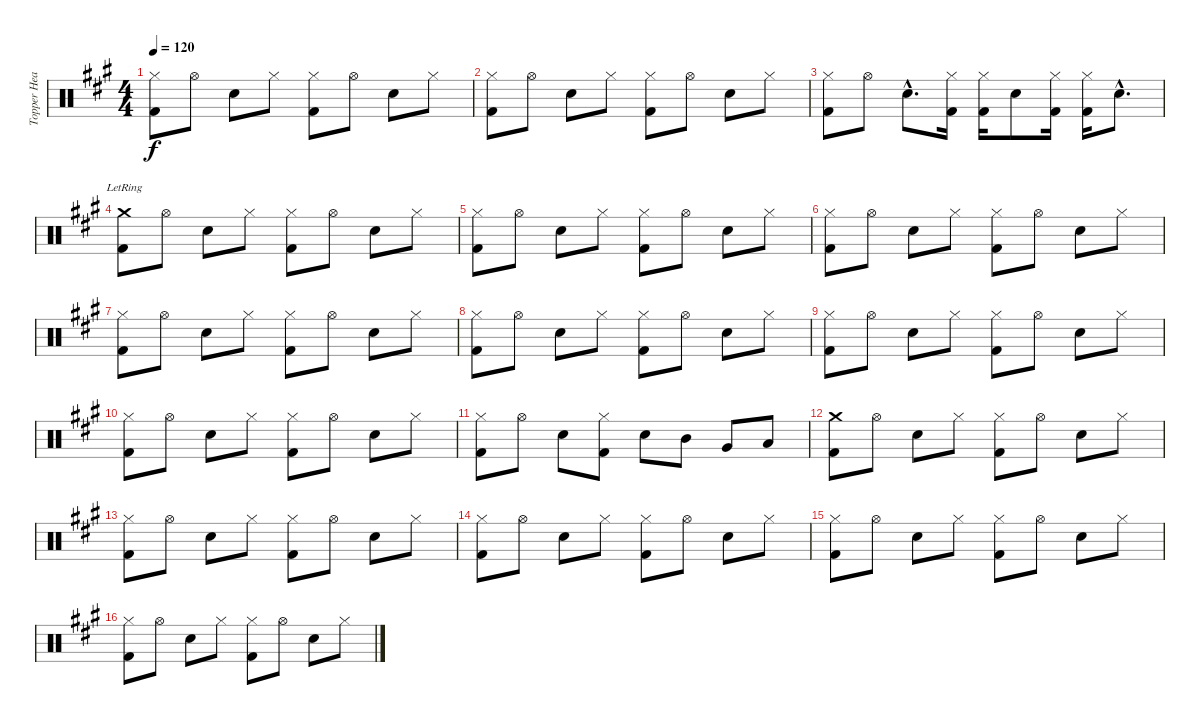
\track ("Topper Headon (Drum)" "Topper Hea") {instrument percussion}
\staff {score}
\articulation defaults
\ts (4 4)
\tempo 120
\clef neutral
\ks a
("Hi-Hat (closed)" "Kick (hit) 2").8{dy f} "Hi-Hat (open)".8 "Electric Snare (hit)".8 "Hi-Hat (closed)".8 ("Hi-Hat (closed)" "Kick (hit) 2").8 "Hi-Hat (open)".8 "Electric Snare (hit)".8 "Hi-Hat (closed)".8 |
("Hi-Hat (closed)" "Kick (hit) 2").8 "Hi-Hat (open)".8 "Electric Snare (hit)".8 "Hi-Hat (closed)".8 ("Hi-Hat (closed)" "Kick (hit) 2").8 "Hi-Hat (open)".8 "Electric Snare (hit)".8 "Hi-Hat (closed)".8 |
("Hi-Hat (closed)" "Kick (hit) 2").8 "Hi-Hat (open)".8 "Electric Snare (hit)"{hac}.8{d} ("Hi-Hat (closed)" "Kick (hit) 2").16 ("Hi-Hat (closed)" "Kick (hit) 2").16 "Electric Snare (hit)".8 ("Hi-Hat (closed)" "Kick (hit) 2").16 ("Hi-Hat (closed)" "Kick (hit) 2").16 "Electric Snare (hit)"{hac}.8{d} |
("Crash medium (hit)"{lr} "Kick (hit) 2").8 "Hi-Hat (open)".8 "Electric Snare (hit)".8 "Hi-Hat (closed)".8 ("Hi-Hat (closed)" "Kick (hit) 2").8 "Hi-Hat (open)".8 "Electric Snare (hit)".8 "Hi-Hat (closed)".8 |
("Hi-Hat (closed)" "Kick (hit) 2").8 "Hi-Hat (open)".8 "Electric Snare (hit)".8 "Hi-Hat (closed)".8 ("Hi-Hat (closed)" "Kick (hit) 2").8 "Hi-Hat (open)".8 "Electric Snare (hit)".8 "Hi-Hat (closed)".8 |
("Hi-Hat (closed)" "Kick (hit) 2").8 "Hi-Hat (open)".8 "Electric Snare (hit)".8 "Hi-Hat (closed)".8 ("Hi-Hat (closed)" "Kick (hit) 2").8 "Hi-Hat (open)".8 "Electric Snare (hit)".8 "Hi-Hat (closed)".8 |
("Hi-Hat (closed)" "Kick (hit) 2").8 "Hi-Hat (open)".8 "Electric Snare (hit)".8 "Hi-Hat (closed)".8 ("Hi-Hat (closed)" "Kick (hit) 2").8 "Hi-Hat (open)".8 "Electric Snare (hit)".8 "Hi-Hat (closed)".8 |
("Hi-Hat (closed)" "Kick (hit) 2").8 "Hi-Hat (open)".8 "Electric Snare (hit)".8 "Hi-Hat (closed)".8 ("Hi-Hat (closed)" "Kick (hit) 2").8 "Hi-Hat (open)".8 "Electric Snare (hit)".8 "Hi-Hat (closed)".8 |
("Hi-Hat (closed)" "Kick (hit) 2").8 "Hi-Hat (open)".8 "Electric Snare (hit)".8 "Hi-Hat (closed)".8 ("Hi-Hat (closed)" "Kick (hit) 2").8 "Hi-Hat (open)".8 "Electric Snare (hit)".8 "Hi-Hat (closed)".8 |
("Hi-Hat (closed)" "Kick (hit) 2").8 "Hi-Hat (open)".8 "Electric Snare (hit)".8 "Hi-Hat (closed)".8 ("Hi-Hat (closed)" "Kick (hit) 2").8 "Hi-Hat (open)".8 "Electric Snare (hit)".8 "Hi-Hat (closed)".8 |
("Hi-Hat (closed)" "Kick (hit) 2").8 "Hi-Hat (open)".8 "Electric Snare (hit)".8 ("Hi-Hat (closed)" "Kick (hit) 2").8 "Electric Snare (hit)".8 "Mid Tom (hit)".8 "Very Low Tom (hit)".8 "Low Floor Tom (hit)".8 |
("Crash medium (hit)" "Kick (hit) 2").8 "Hi-Hat (open)".8 "Electric Snare (hit)".8 "Hi-Hat (closed)".8 ("Hi-Hat (closed)" "Kick (hit) 2").8 "Hi-Hat (open)".8 "Electric Snare (hit)".8 "Hi-Hat (closed)".8 |
("Hi-Hat (closed)" "Kick (hit) 2").8 "Hi-Hat (open)".8 "Electric Snare (hit)".8 "Hi-Hat (closed)".8 ("Hi-Hat (closed)" "Kick (hit) 2").8 "Hi-Hat (open)".8 "Electric Snare (hit)".8 "Hi-Hat (closed)".8 |
("Hi-Hat (closed)" "Kick (hit) 2").8 "Hi-Hat (open)".8 "Electric Snare (hit)".8 "Hi-Hat (closed)".8 ("Hi-Hat (closed)" "Kick (hit) 2").8 "Hi-Hat (open)".8 "Electric Snare (hit)".8 "Hi-Hat (closed)".8 |
("Hi-Hat (closed)" "Kick (hit) 2").8 "Hi-Hat (open)".8 "Electric Snare (hit)".8 "Hi-Hat (closed)".8 ("Hi-Hat (closed)" "Kick (hit) 2").8 "Hi-Hat (open)".8 "Electric Snare (hit)".8 "Hi-Hat (closed)".8 |
("Hi-Hat (closed)" "Kick (hit) 2").8 "Hi-Hat (open)".8 "Electric Snare (hit)".8 "Hi-Hat (closed)".8 ("Hi-Hat (closed)" "Kick (hit) 2").8 "Hi-Hat (open)".8 "Electric Snare (hit)".8 "Hi-Hat (closed)".8
